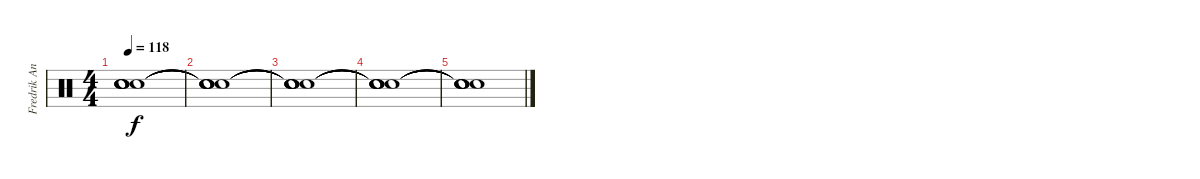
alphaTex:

\track ("Fredrik Andersson " "Fredrik An") {instrument percussion}
\staff {score}
\articulation defaults
\ts (4 4)
\tempo 118
\clef neutral
\ks c
("Snare (hit)"{t} "Snare (hit)"{t} "Snare (hit)"{t} "Snare (hit)"{t} "Snare (hit)"{t}).1{dy f} |
("Snare (hit)"{t} "Snare (hit)"{t} "Snare (hit)"{t} "Snare (hit)"{t} "Snare (hit)"{t}).1 |
("Snare (hit)"{t} "Snare (hit)"{t} "Snare (hit)"{t} "Snare (hit)"{t} "Snare (hit)"{t}).1 |
("Snare (hit)"{t} "Snare (hit)"{t} "Snare (hit)"{t} "Snare (hit)"{t} "Snare (hit)"{t}).1 |
("Snare (hit)"{t} "Snare (hit)"{t} "Snare (hit)"{t} "Snare (hit)"{t} "Snare (hit)"{t}).1
